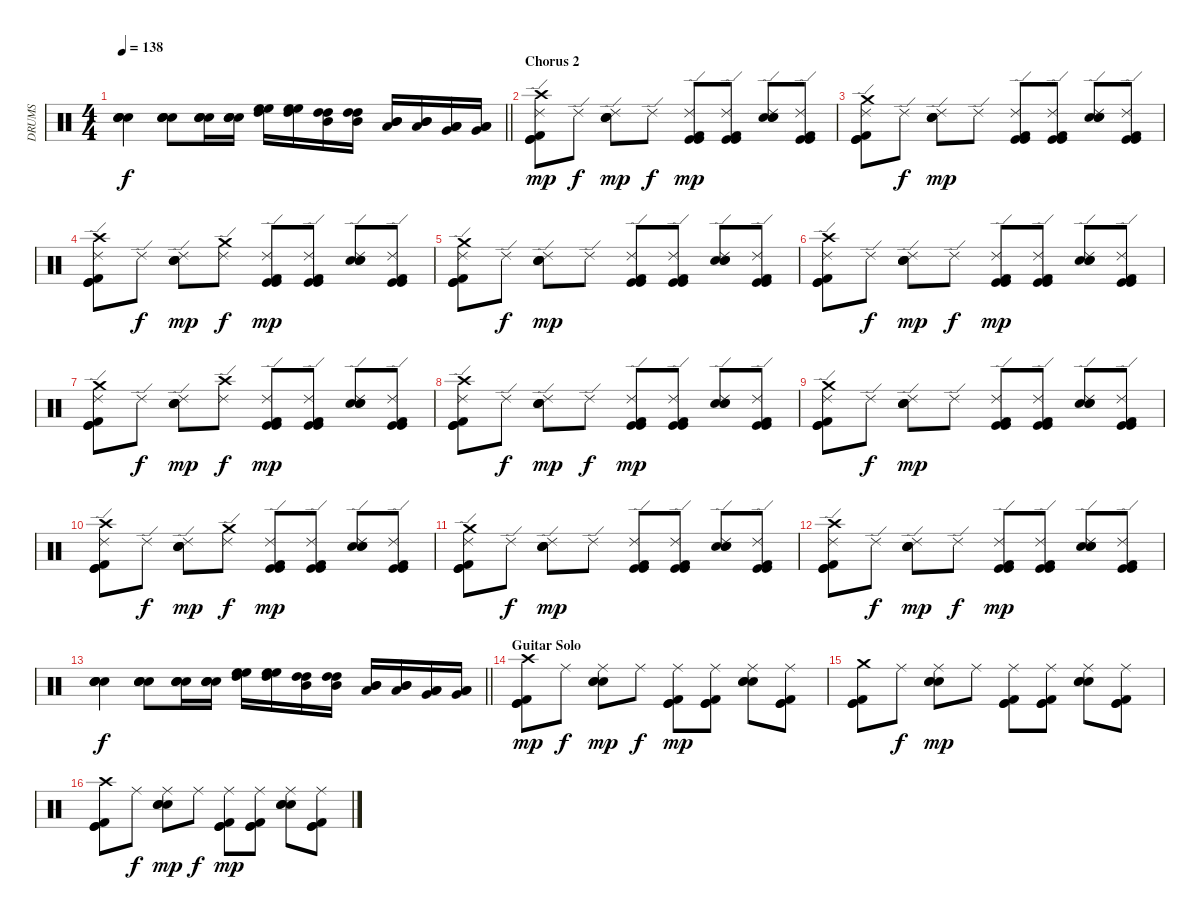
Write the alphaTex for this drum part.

\track ("DRUMS" "DRUMS") {instrument percussion}
\staff {score}
\articulation defaults
\ts (4 4)
\tempo 138
\clef neutral
\barLineRight lightlight
\ks c
("Snare (hit) 2" "Electric Snare (hit)" "Snare (hit) 2" "Electric Snare (hit)").4{dy f} ("Snare (hit) 2" "Electric Snare (hit)" "Snare (hit) 2" "Electric Snare (hit)").8 ("Snare (hit) 2" "Electric Snare (hit)" "Snare (hit) 2" "Electric Snare (hit)").16 ("Snare (hit) 2" "Electric Snare (hit)" "Snare (hit) 2" "Electric Snare (hit)").16 ("High Floor Tom (hit)" "High Tom (hit)" "High Floor Tom (hit)").16{volume 12 balance 0} ("High Floor Tom (hit)" "High Tom (hit)" "High Floor Tom (hit)").16 ("High Tom (hit)" "Mid Tom (hit)" "High Tom (hit)").16{balance 4} ("High Tom (hit)" "Mid Tom (hit)" "High Tom (hit)").16 ("Mid Tom (hit)" "Low Tom (hit)" "Mid Tom (hit)").16{balance 12} ("Mid Tom (hit)" "Low Tom (hit)" "Mid Tom (hit)").16 ("Low Tom (hit)" "Very Low Tom (hit)" "Low Tom (hit)").16{balance 16} ("Low Tom (hit)" "Very Low Tom (hit)" "Low Tom (hit)").16 |
\section ("" "Chorus 2")
("Ride (edge) 2" "Kick (hit) 2" "Kick (hit)" "Kick (hit)" "Crash high (hit)").8{dy mp volume 8 balance 8} "Ride (edge) 2".8{dy f} ("Ride (edge) 2" "Electric Snare (hit)" "Snare (hit) 2" "Snare (hit) 2").8{dy mp} "Ride (edge) 2".8{dy f} ("Ride (edge) 2" "Kick (hit) 2" "Kick (hit)" "Kick (hit)").8{dy mp} ("Ride (edge) 2" "Kick (hit) 2" "Kick (hit)" "Kick (hit)").8 ("Ride (edge) 2" "Electric Snare (hit)" "Snare (hit) 2" "Snare (hit) 2").8 ("Ride (edge) 2" "Kick (hit) 2" "Kick (hit)" "Kick (hit)").8 |
("Ride (edge) 2" "Kick (hit) 2" "Kick (hit)" "Kick (hit)" "Crash medium (hit)").8 "Ride (edge) 2".8{dy f} ("Ride (edge) 2" "Electric Snare (hit)" "Snare (hit) 2" "Snare (hit) 2").8{dy mp} "Ride (edge) 2".8 ("Ride (edge) 2" "Kick (hit) 2" "Kick (hit)" "Kick (hit)").8 ("Ride (edge) 2" "Kick (hit) 2" "Kick (hit)" "Kick (hit)").8 ("Ride (edge) 2" "Electric Snare (hit)" "Snare (hit) 2" "Snare (hit) 2").8 ("Ride (edge) 2" "Kick (hit) 2" "Kick (hit)" "Kick (hit)").8 |
("Ride (edge) 2" "Kick (hit) 2" "Kick (hit)" "Kick (hit)" "Crash high (hit)").8 "Ride (edge) 2".8{dy f} ("Ride (edge) 2" "Electric Snare (hit)" "Snare (hit) 2" "Snare (hit) 2").8{dy mp} ("Ride (edge) 2" "Crash medium (hit)").8{dy f} ("Ride (edge) 2" "Kick (hit) 2" "Kick (hit)" "Kick (hit)").8{dy mp} ("Ride (edge) 2" "Kick (hit) 2" "Kick (hit)" "Kick (hit)").8 ("Ride (edge) 2" "Electric Snare (hit)" "Snare (hit) 2" "Snare (hit) 2").8 ("Ride (edge) 2" "Kick (hit) 2" "Kick (hit)" "Kick (hit)").8 |
("Ride (edge) 2" "Kick (hit) 2" "Kick (hit)" "Kick (hit)" "Crash medium (hit)").8 "Ride (edge) 2".8{dy f} ("Ride (edge) 2" "Electric Snare (hit)" "Snare (hit) 2" "Snare (hit) 2").8{dy mp} "Ride (edge) 2".8 ("Ride (edge) 2" "Kick (hit) 2" "Kick (hit)" "Kick (hit)").8 ("Ride (edge) 2" "Kick (hit) 2" "Kick (hit)" "Kick (hit)").8 ("Ride (edge) 2" "Electric Snare (hit)" "Snare (hit) 2" "Snare (hit) 2").8 ("Ride (edge) 2" "Kick (hit) 2" "Kick (hit)" "Kick (hit)").8 |
("Ride (edge) 2" "Kick (hit) 2" "Kick (hit)" "Kick (hit)" "Crash high (hit)").8 "Ride (edge) 2".8{dy f} ("Ride (edge) 2" "Electric Snare (hit)" "Snare (hit) 2" "Snare (hit) 2").8{dy mp} "Ride (edge) 2".8{dy f} ("Ride (edge) 2" "Kick (hit) 2" "Kick (hit)" "Kick (hit)").8{dy mp} ("Ride (edge) 2" "Kick (hit) 2" "Kick (hit)" "Kick (hit)").8 ("Ride (edge) 2" "Electric Snare (hit)" "Snare (hit) 2" "Snare (hit) 2").8 ("Ride (edge) 2" "Kick (hit) 2" "Kick (hit)" "Kick (hit)").8 |
("Ride (edge) 2" "Kick (hit) 2" "Kick (hit)" "Kick (hit)" "Crash medium (hit)").8 "Ride (edge) 2".8{dy f} ("Ride (edge) 2" "Electric Snare (hit)" "Snare (hit) 2" "Snare (hit) 2").8{dy mp} ("Ride (edge) 2" "Crash high (hit)").8{dy f} ("Ride (edge) 2" "Kick (hit) 2" "Kick (hit)" "Kick (hit)").8{dy mp} ("Ride (edge) 2" "Kick (hit) 2" "Kick (hit)" "Kick (hit)").8 ("Ride (edge) 2" "Electric Snare (hit)" "Snare (hit) 2" "Snare (hit) 2").8 ("Ride (edge) 2" "Kick (hit) 2" "Kick (hit)" "Kick (hit)").8 |
("Ride (edge) 2" "Kick (hit) 2" "Kick (hit)" "Kick (hit)" "Crash high (hit)").8 "Ride (edge) 2".8{dy f} ("Ride (edge) 2" "Electric Snare (hit)" "Snare (hit) 2" "Snare (hit) 2").8{dy mp} "Ride (edge) 2".8{dy f} ("Ride (edge) 2" "Kick (hit) 2" "Kick (hit)" "Kick (hit)").8{dy mp} ("Ride (edge) 2" "Kick (hit) 2" "Kick (hit)" "Kick (hit)").8 ("Ride (edge) 2" "Electric Snare (hit)" "Snare (hit) 2" "Snare (hit) 2").8 ("Ride (edge) 2" "Kick (hit) 2" "Kick (hit)" "Kick (hit)").8 |
("Ride (edge) 2" "Kick (hit) 2" "Kick (hit)" "Kick (hit)" "Crash medium (hit)").8 "Ride (edge) 2".8{dy f} ("Ride (edge) 2" "Electric Snare (hit)" "Snare (hit) 2" "Snare (hit) 2").8{dy mp} "Ride (edge) 2".8 ("Ride (edge) 2" "Kick (hit) 2" "Kick (hit)" "Kick (hit)").8 ("Ride (edge) 2" "Kick (hit) 2" "Kick (hit)" "Kick (hit)").8 ("Ride (edge) 2" "Electric Snare (hit)" "Snare (hit) 2" "Snare (hit) 2").8 ("Ride (edge) 2" "Kick (hit) 2" "Kick (hit)" "Kick (hit)").8 |
("Ride (edge) 2" "Kick (hit) 2" "Kick (hit)" "Kick (hit)" "Crash high (hit)").8 "Ride (edge) 2".8{dy f} ("Ride (edge) 2" "Electric Snare (hit)" "Snare (hit) 2" "Snare (hit) 2").8{dy mp} ("Ride (edge) 2" "Crash medium (hit)").8{dy f} ("Ride (edge) 2" "Kick (hit) 2" "Kick (hit)" "Kick (hit)").8{dy mp} ("Ride (edge) 2" "Kick (hit) 2" "Kick (hit)" "Kick (hit)").8 ("Ride (edge) 2" "Electric Snare (hit)" "Snare (hit) 2" "Snare (hit) 2").8 ("Ride (edge) 2" "Kick (hit) 2" "Kick (hit)" "Kick (hit)").8 |
("Ride (edge) 2" "Kick (hit) 2" "Kick (hit)" "Kick (hit)" "Crash medium (hit)").8 "Ride (edge) 2".8{dy f} ("Ride (edge) 2" "Electric Snare (hit)" "Snare (hit) 2" "Snare (hit) 2").8{dy mp} "Ride (edge) 2".8 ("Ride (edge) 2" "Kick (hit) 2" "Kick (hit)" "Kick (hit)").8 ("Ride (edge) 2" "Kick (hit) 2" "Kick (hit)" "Kick (hit)").8 ("Ride (edge) 2" "Electric Snare (hit)" "Snare (hit) 2" "Snare (hit) 2").8 ("Ride (edge) 2" "Kick (hit) 2" "Kick (hit)" "Kick (hit)").8 |
("Ride (edge) 2" "Kick (hit) 2" "Kick (hit)" "Kick (hit)" "Crash high (hit)").8 "Ride (edge) 2".8{dy f} ("Ride (edge) 2" "Electric Snare (hit)" "Snare (hit) 2" "Snare (hit) 2").8{dy mp} "Ride (edge) 2".8{dy f} ("Ride (edge) 2" "Kick (hit) 2" "Kick (hit)" "Kick (hit)").8{dy mp} ("Ride (edge) 2" "Kick (hit) 2" "Kick (hit)" "Kick (hit)").8 ("Ride (edge) 2" "Electric Snare (hit)" "Snare (hit) 2" "Snare (hit) 2").8 ("Ride (edge) 2" "Kick (hit) 2" "Kick (hit)" "Kick (hit)").8 |
\barLineRight lightlight
("Snare (hit) 2" "Electric Snare (hit)" "Snare (hit) 2" "Electric Snare (hit)").4{dy f} ("Snare (hit) 2" "Electric Snare (hit)" "Snare (hit) 2" "Electric Snare (hit)").8 ("Snare (hit) 2" "Electric Snare (hit)" "Snare (hit) 2" "Electric Snare (hit)").16 ("Snare (hit) 2" "Electric Snare (hit)" "Snare (hit) 2" "Electric Snare (hit)").16 ("High Floor Tom (hit)" "High Tom (hit)" "High Floor Tom (hit)").16{volume 12 balance 0} ("High Floor Tom (hit)" "High Tom (hit)" "High Floor Tom (hit)").16 ("High Tom (hit)" "Mid Tom (hit)" "High Tom (hit)").16{balance 4} ("High Tom (hit)" "Mid Tom (hit)" "High Tom (hit)").16 ("Mid Tom (hit)" "Low Tom (hit)" "Mid Tom (hit)").16{balance 12} ("Mid Tom (hit)" "Low Tom (hit)" "Mid Tom (hit)").16 ("Low Tom (hit)" "Very Low Tom (hit)" "Low Tom (hit)").16{balance 16} ("Low Tom (hit)" "Very Low Tom (hit)" "Low Tom (hit)").16 |
\section ("" "Guitar Solo")
("Kick (hit) 2" "Kick (hit)" "Kick (hit)" "Crash high (hit)").8{dy mp volume 8 balance 8} "Ride (middle)".8{dy f} ("Ride (middle)" "Electric Snare (hit)" "Snare (hit) 2" "Snare (hit) 2").8{dy mp} "Ride (middle)".8{dy f} ("Ride (middle)" "Kick (hit) 2" "Kick (hit)" "Kick (hit)").8{dy mp} ("Ride (middle)" "Kick (hit) 2" "Kick (hit)" "Kick (hit)").8 ("Ride (middle)" "Electric Snare (hit)" "Snare (hit) 2" "Snare (hit) 2").8 ("Ride (middle)" "Kick (hit) 2" "Kick (hit)" "Kick (hit)").8 |
("Kick (hit) 2" "Kick (hit)" "Kick (hit)" "Crash medium (hit)").8 "Ride (middle)".8{dy f} ("Ride (middle)" "Electric Snare (hit)" "Snare (hit) 2" "Snare (hit) 2").8{dy mp} "Ride (middle)".8 ("Ride (middle)" "Kick (hit) 2" "Kick (hit)" "Kick (hit)").8 ("Ride (middle)" "Kick (hit) 2" "Kick (hit)" "Kick (hit)").8 ("Ride (middle)" "Electric Snare (hit)" "Snare (hit) 2" "Snare (hit) 2").8 ("Ride (middle)" "Kick (hit) 2" "Kick (hit)" "Kick (hit)").8 |
("Kick (hit) 2" "Kick (hit)" "Kick (hit)" "Crash high (hit)").8 "Ride (middle)".8{dy f} ("Ride (middle)" "Electric Snare (hit)" "Snare (hit) 2" "Snare (hit) 2").8{dy mp} "Ride (middle)".8{dy f} ("Ride (middle)" "Kick (hit) 2" "Kick (hit)" "Kick (hit)").8{dy mp} ("Ride (middle)" "Kick (hit) 2" "Kick (hit)" "Kick (hit)").8 ("Ride (middle)" "Electric Snare (hit)" "Snare (hit) 2" "Snare (hit) 2").8 ("Ride (middle)" "Kick (hit) 2" "Kick (hit)" "Kick (hit)").8
